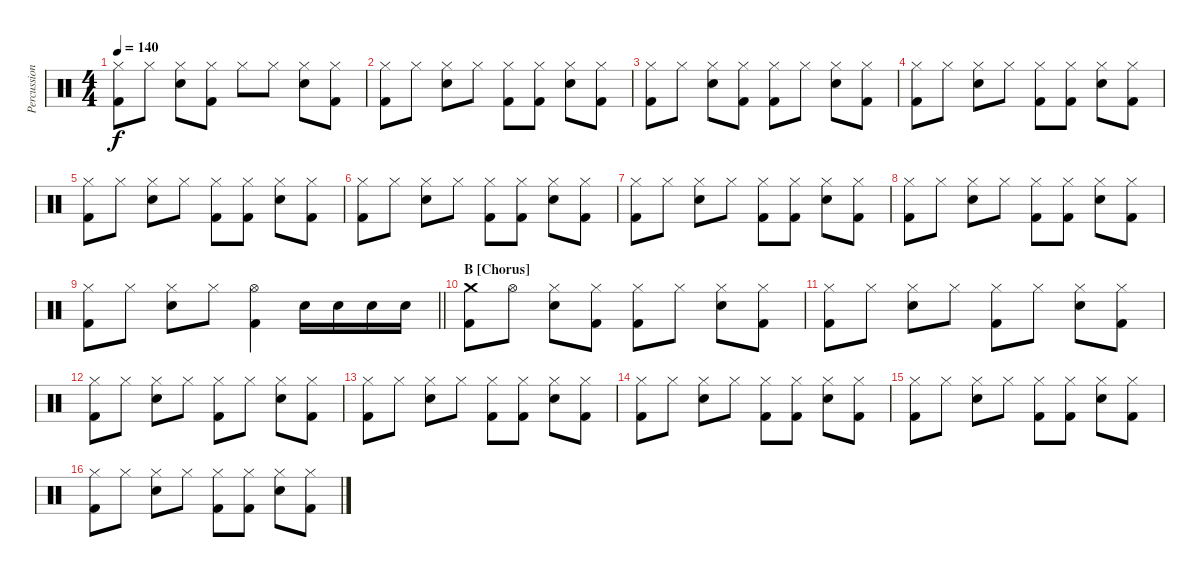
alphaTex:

\track ("Percussion" "Percussion") {instrument percussion}
\staff {score}
\articulation defaults
\ts (4 4)
\tempo 140
\clef neutral
\ks c
("Hi-Hat (closed)" "Kick (hit) 2").8{dy f} "Hi-Hat (closed)".8 ("Hi-Hat (closed)" "Snare (hit) 2").8 ("Hi-Hat (closed)" "Kick (hit) 2").8 "Hi-Hat (closed)".8 "Hi-Hat (closed)".8 ("Hi-Hat (closed)" "Snare (hit) 2").8 ("Hi-Hat (closed)" "Kick (hit) 2").8 |
("Hi-Hat (closed)" "Kick (hit) 2").8 "Hi-Hat (closed)".8 ("Hi-Hat (closed)" "Snare (hit) 2").8 "Hi-Hat (closed)".8 ("Hi-Hat (closed)" "Kick (hit) 2").8 ("Hi-Hat (closed)" "Kick (hit) 2").8 ("Hi-Hat (closed)" "Snare (hit) 2").8 ("Hi-Hat (closed)" "Kick (hit) 2").8 |
("Hi-Hat (closed)" "Kick (hit) 2").8 "Hi-Hat (closed)".8 ("Hi-Hat (closed)" "Snare (hit) 2").8 ("Hi-Hat (closed)" "Kick (hit) 2").8 ("Hi-Hat (closed)" "Kick (hit) 2").8 "Hi-Hat (closed)".8 ("Hi-Hat (closed)" "Snare (hit) 2").8 ("Hi-Hat (closed)" "Kick (hit) 2").8 |
("Hi-Hat (closed)" "Kick (hit) 2").8 "Hi-Hat (closed)".8 ("Hi-Hat (closed)" "Snare (hit) 2").8 "Hi-Hat (closed)".8 ("Hi-Hat (closed)" "Kick (hit) 2").8 ("Hi-Hat (closed)" "Kick (hit) 2").8 ("Hi-Hat (closed)" "Snare (hit) 2").8 ("Hi-Hat (closed)" "Kick (hit) 2").8 |
("Hi-Hat (closed)" "Kick (hit) 2").8 "Hi-Hat (closed)".8 ("Hi-Hat (closed)" "Snare (hit) 2").8 "Hi-Hat (closed)".8 ("Hi-Hat (closed)" "Kick (hit) 2").8 ("Hi-Hat (closed)" "Kick (hit) 2").8 ("Hi-Hat (closed)" "Snare (hit) 2").8 ("Hi-Hat (closed)" "Kick (hit) 2").8 |
("Hi-Hat (closed)" "Kick (hit) 2").8 "Hi-Hat (closed)".8 ("Hi-Hat (closed)" "Snare (hit) 2").8 "Hi-Hat (closed)".8 ("Hi-Hat (closed)" "Kick (hit) 2").8 ("Hi-Hat (closed)" "Kick (hit) 2").8 ("Hi-Hat (closed)" "Snare (hit) 2").8 ("Hi-Hat (closed)" "Kick (hit) 2").8 |
("Hi-Hat (closed)" "Kick (hit) 2").8 "Hi-Hat (closed)".8 ("Hi-Hat (closed)" "Snare (hit) 2").8 "Hi-Hat (closed)".8 ("Hi-Hat (closed)" "Kick (hit) 2").8 ("Hi-Hat (closed)" "Kick (hit) 2").8 ("Hi-Hat (closed)" "Snare (hit) 2").8 ("Hi-Hat (closed)" "Kick (hit) 2").8 |
("Hi-Hat (closed)" "Kick (hit) 2").8 "Hi-Hat (closed)".8 ("Hi-Hat (closed)" "Snare (hit) 2").8 "Hi-Hat (closed)".8 ("Hi-Hat (closed)" "Kick (hit) 2").8 ("Hi-Hat (closed)" "Kick (hit) 2").8 ("Hi-Hat (closed)" "Snare (hit) 2").8 ("Hi-Hat (closed)" "Kick (hit) 2").8 |
\barLineRight lightlight
("Hi-Hat (closed)" "Kick (hit) 2").8 "Hi-Hat (closed)".8 ("Hi-Hat (closed)" "Snare (hit) 2").8 "Hi-Hat (closed)".8 ("Hi-Hat (open)" "Kick (hit) 2").4 "Snare (hit) 2".16 "Snare (hit) 2".16 "Snare (hit) 2".16 "Snare (hit) 2".16 |
\section ("" "B [Chorus]")
("Crash medium (hit)" "Kick (hit) 2").8 "Hi-Hat (open)".8 ("Hi-Hat (closed)" "Snare (hit) 2").8 ("Hi-Hat (closed)" "Kick (hit) 2").8 ("Hi-Hat (closed)" "Kick (hit) 2").8 "Hi-Hat (closed)".8 ("Hi-Hat (closed)" "Snare (hit) 2").8 ("Hi-Hat (closed)" "Kick (hit) 2").8 |
("Hi-Hat (closed)" "Kick (hit) 2").8 "Hi-Hat (closed)".8 ("Hi-Hat (closed)" "Snare (hit) 2").8 "Hi-Hat (closed)".8 ("Hi-Hat (closed)" "Kick (hit) 2").8 "Hi-Hat (closed)".8 ("Hi-Hat (closed)" "Snare (hit) 2").8 ("Hi-Hat (closed)" "Kick (hit) 2").8 |
("Hi-Hat (closed)" "Kick (hit) 2").8 "Hi-Hat (closed)".8 ("Hi-Hat (closed)" "Snare (hit) 2").8 "Hi-Hat (closed)".8 ("Hi-Hat (closed)" "Kick (hit) 2").8 "Hi-Hat (closed)".8 ("Hi-Hat (closed)" "Snare (hit) 2").8 ("Hi-Hat (closed)" "Kick (hit) 2").8 |
("Hi-Hat (closed)" "Kick (hit) 2").8 "Hi-Hat (closed)".8 ("Hi-Hat (closed)" "Snare (hit) 2").8 "Hi-Hat (closed)".8 ("Hi-Hat (closed)" "Kick (hit) 2").8 ("Hi-Hat (closed)" "Kick (hit) 2").8 ("Hi-Hat (closed)" "Snare (hit) 2").8 ("Hi-Hat (closed)" "Kick (hit) 2").8 |
("Hi-Hat (closed)" "Kick (hit) 2").8 "Hi-Hat (closed)".8 ("Hi-Hat (closed)" "Snare (hit) 2").8 "Hi-Hat (closed)".8 ("Hi-Hat (closed)" "Kick (hit) 2").8 ("Hi-Hat (closed)" "Kick (hit) 2").8 ("Hi-Hat (closed)" "Snare (hit) 2").8 ("Hi-Hat (closed)" "Kick (hit) 2").8 |
("Hi-Hat (closed)" "Kick (hit) 2").8 "Hi-Hat (closed)".8 ("Hi-Hat (closed)" "Snare (hit) 2").8 "Hi-Hat (closed)".8 ("Hi-Hat (closed)" "Kick (hit) 2").8 ("Hi-Hat (closed)" "Kick (hit) 2").8 ("Hi-Hat (closed)" "Snare (hit) 2").8 ("Hi-Hat (closed)" "Kick (hit) 2").8 |
("Hi-Hat (closed)" "Kick (hit) 2").8 "Hi-Hat (closed)".8 ("Hi-Hat (closed)" "Snare (hit) 2").8 "Hi-Hat (closed)".8 ("Hi-Hat (closed)" "Kick (hit) 2").8 ("Hi-Hat (closed)" "Kick (hit) 2").8 ("Hi-Hat (closed)" "Snare (hit) 2").8 ("Hi-Hat (closed)" "Kick (hit) 2").8
